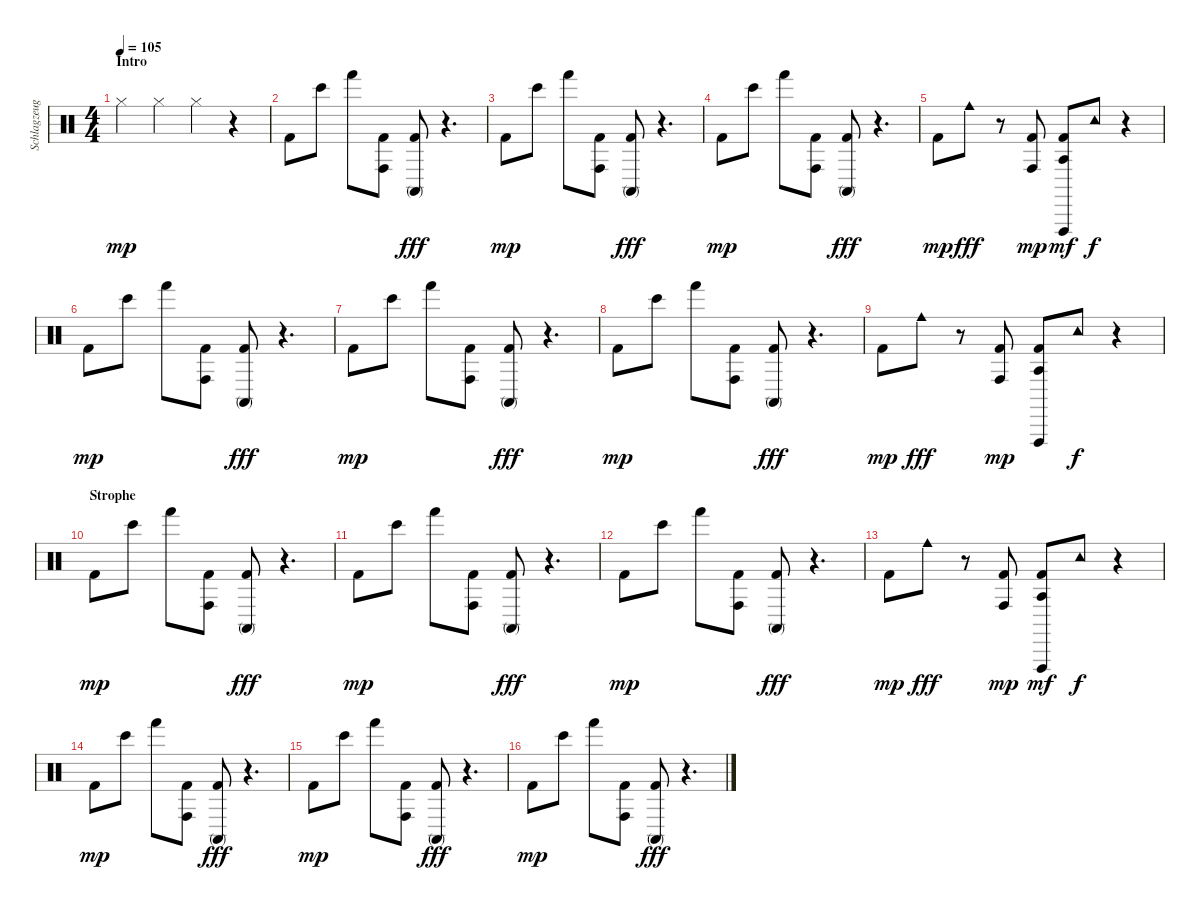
\track ("Schlagzeug" "Schlagzeug") {instrument percussion}
\staff {score}
\articulation defaults
\ts (4 4)
\section ("" "Intro")
\tempo 105
\clef neutral
\ks c "Hi-Hat (closed)".4{dy mp} "Hi-Hat (closed)".4 "Hi-Hat (closed)".4
r.4 |
"Kick (hit) 2".8 "Bongo High (hit)".8 "Hand (hit)".8 ("Kick (hit) 2" "Conga high (hit)").8 ("Kick (hit) 2" "Conga high (mute)").8{dy fff} r.4{d} |
"Kick (hit) 2".8{dy mp} "Bongo High (hit)".8 "Hand (hit)".8 ("Kick (hit) 2" "Conga high (hit)").8 ("Kick (hit) 2" "Conga high (mute)").8{dy fff} r.4{d} |
"Kick (hit) 2".8{dy mp} "Bongo High (hit)".8 "Hand (hit)".8 ("Kick (hit) 2" "Conga high (hit)").8 ("Kick (hit) 2" "Conga high (mute)").8{dy fff} r.4{d} |
"Kick (hit) 2".8{dy mp} "Cowbell medium (hit)".8{dy fff} r.8 ("Kick (hit) 2" "Conga high (hit)").8{dy mp} ("Kick (hit) 2" "Vibraslap (hit)" "Agogo tow (hit)").8{dy mf} "Tambourine (hit)".8{dy f} r.4 |
"Kick (hit) 2".8{dy mp} "Bongo High (hit)".8 "Hand (hit)".8 ("Kick (hit) 2" "Conga high (hit)").8 ("Kick (hit) 2" "Conga high (mute)").8{dy fff} r.4{d} |
"Kick (hit) 2".8{dy mp} "Bongo High (hit)".8 "Hand (hit)".8 ("Kick (hit) 2" "Conga high (hit)").8 ("Kick (hit) 2" "Conga high (mute)").8{dy fff} r.4{d} |
"Kick (hit) 2".8{dy mp} "Bongo High (hit)".8 "Hand (hit)".8 ("Kick (hit) 2" "Conga high (hit)").8 ("Kick (hit) 2" "Conga high (mute)").8{dy fff} r.4{d} |
"Kick (hit) 2".8{dy mp} "Cowbell medium (hit)".8{dy fff} r.8 ("Kick (hit) 2" "Conga high (hit)").8{dy mp} ("Agogo tow (hit)" "Kick (hit) 2" "Vibraslap (hit)").8 "Tambourine (hit)".8{dy f} r.4 |
\section ("" "Strophe")
"Kick (hit) 2".8{dy mp} "Bongo High (hit)".8 "Hand (hit)".8 ("Kick (hit) 2" "Conga high (hit)").8 ("Kick (hit) 2" "Conga high (mute)").8{dy fff} r.4{d} |
"Kick (hit) 2".8{dy mp} "Bongo High (hit)".8 "Hand (hit)".8 ("Kick (hit) 2" "Conga high (hit)").8 ("Kick (hit) 2" "Conga high (mute)").8{dy fff} r.4{d} |
"Kick (hit) 2".8{dy mp} "Bongo High (hit)".8 "Hand (hit)".8 ("Kick (hit) 2" "Conga high (hit)").8 ("Kick (hit) 2" "Conga high (mute)").8{dy fff} r.4{d} |
"Kick (hit) 2".8{dy mp} "Cowbell medium (hit)".8{dy fff} r.8 ("Kick (hit) 2" "Conga high (hit)").8{dy mp} ("Kick (hit) 2" "Vibraslap (hit)" "Agogo tow (hit)").8{dy mf} "Tambourine (hit)".8{dy f} r.4 |
"Kick (hit) 2".8{dy mp} "Bongo High (hit)".8 "Hand (hit)".8 ("Kick (hit) 2" "Conga high (hit)").8 ("Kick (hit) 2" "Conga high (mute)").8{dy fff} r.4{d} |
"Kick (hit) 2".8{dy mp} "Bongo High (hit)".8 "Hand (hit)".8 ("Kick (hit) 2" "Conga high (hit)").8 ("Kick (hit) 2" "Conga high (mute)").8{dy fff} r.4{d} |
"Kick (hit) 2".8{dy mp} "Bongo High (hit)".8 "Hand (hit)".8 ("Kick (hit) 2" "Conga high (hit)").8 ("Kick (hit) 2" "Conga high (mute)").8{dy fff} r.4{d}
